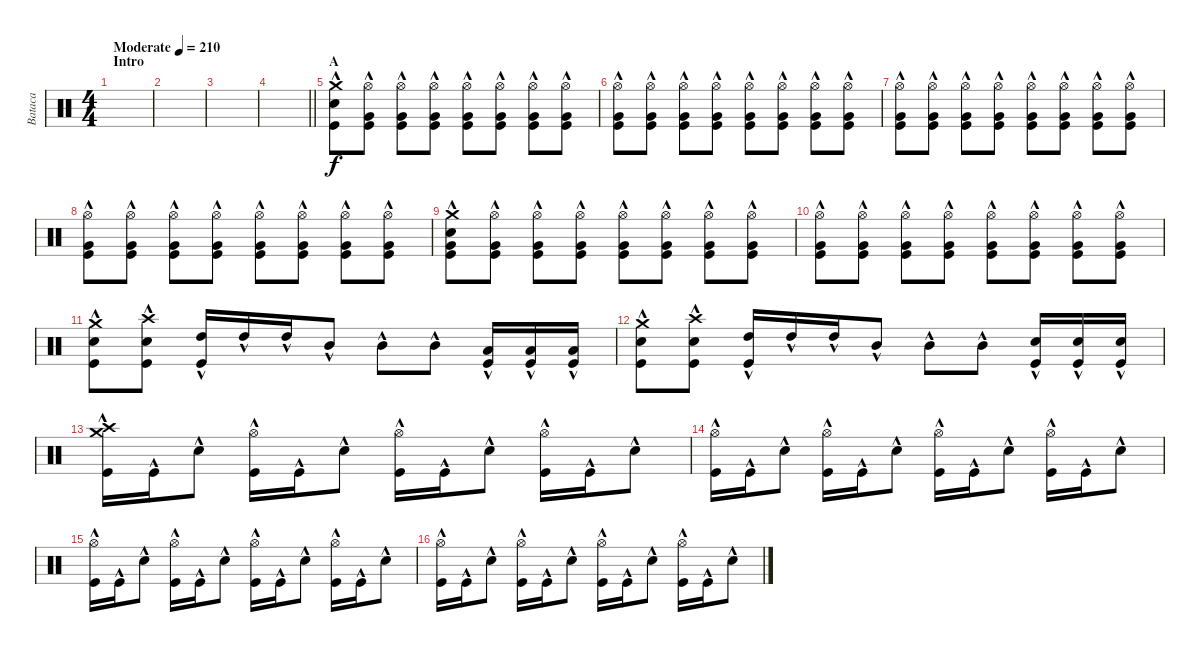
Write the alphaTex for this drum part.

\track ("Bataca" "Bataca") {instrument percussion}
\staff {score}
\articulation defaults
\ts (4 4)
\section ("" "Intro")
\tempo (210 "Moderate")
\clef neutral
\ks c
|
|
|
\barLineRight lightlight
|
\section ("" "A")
("Crash medium (hit)"{hac} "Electric Snare (hit)"{hac} "Kick (hit)"{hac}).8 ("Very Low Tom (hit)"{hac} "Hi-Hat (open)"{hac} "Kick (hit)"{hac}).8 ("Very Low Tom (hit)"{hac} "Hi-Hat (open)"{hac} "Kick (hit)"{hac}).8 ("Very Low Tom (hit)"{hac} "Hi-Hat (open)"{hac} "Kick (hit)"{hac}).8 ("Very Low Tom (hit)"{hac} "Hi-Hat (open)"{hac} "Kick (hit)"{hac}).8 ("Very Low Tom (hit)"{hac} "Hi-Hat (open)"{hac} "Kick (hit)"{hac}).8 ("Very Low Tom (hit)"{hac} "Hi-Hat (open)"{hac} "Kick (hit)"{hac}).8 ("Very Low Tom (hit)"{hac} "Hi-Hat (open)"{hac} "Kick (hit)"{hac}).8 |
("Very Low Tom (hit)"{hac} "Hi-Hat (open)"{hac} "Kick (hit)"{hac}).8 ("Very Low Tom (hit)"{hac} "Hi-Hat (open)"{hac} "Kick (hit)"{hac}).8 ("Very Low Tom (hit)"{hac} "Hi-Hat (open)"{hac} "Kick (hit)"{hac}).8 ("Very Low Tom (hit)"{hac} "Hi-Hat (open)"{hac} "Kick (hit)"{hac}).8 ("Very Low Tom (hit)"{hac} "Hi-Hat (open)"{hac} "Kick (hit)"{hac}).8 ("Very Low Tom (hit)"{hac} "Hi-Hat (open)"{hac} "Kick (hit)"{hac}).8 ("Very Low Tom (hit)"{hac} "Hi-Hat (open)"{hac} "Kick (hit)"{hac}).8 ("Very Low Tom (hit)"{hac} "Hi-Hat (open)"{hac} "Kick (hit)"{hac}).8 |
("Very Low Tom (hit)"{hac} "Hi-Hat (open)"{hac} "Kick (hit)"{hac}).8 ("Very Low Tom (hit)"{hac} "Hi-Hat (open)"{hac} "Kick (hit)"{hac}).8 ("Very Low Tom (hit)"{hac} "Hi-Hat (open)"{hac} "Kick (hit)"{hac}).8 ("Very Low Tom (hit)"{hac} "Hi-Hat (open)"{hac} "Kick (hit)"{hac}).8 ("Very Low Tom (hit)"{hac} "Hi-Hat (open)"{hac} "Kick (hit)"{hac}).8 ("Very Low Tom (hit)"{hac} "Hi-Hat (open)"{hac} "Kick (hit)"{hac}).8 ("Very Low Tom (hit)"{hac} "Hi-Hat (open)"{hac} "Kick (hit)"{hac}).8 ("Very Low Tom (hit)"{hac} "Hi-Hat (open)"{hac} "Kick (hit)"{hac}).8 |
("Very Low Tom (hit)"{hac} "Hi-Hat (open)"{hac} "Kick (hit)"{hac}).8 ("Very Low Tom (hit)"{hac} "Hi-Hat (open)"{hac} "Kick (hit)"{hac}).8 ("Very Low Tom (hit)"{hac} "Hi-Hat (open)"{hac} "Kick (hit)"{hac}).8 ("Very Low Tom (hit)"{hac} "Hi-Hat (open)"{hac} "Kick (hit)"{hac}).8 ("Very Low Tom (hit)"{hac} "Hi-Hat (open)"{hac} "Kick (hit)"{hac}).8 ("Very Low Tom (hit)"{hac} "Hi-Hat (open)"{hac} "Kick (hit)"{hac}).8 ("Very Low Tom (hit)"{hac} "Hi-Hat (open)"{hac} "Kick (hit)"{hac}).8 ("Very Low Tom (hit)"{hac} "Hi-Hat (open)"{hac} "Kick (hit)"{hac}).8 |
("Crash medium (hit)"{hac} "Very Low Tom (hit)"{hac} "Electric Snare (hit)"{hac} "Kick (hit)"{hac}).8 ("Very Low Tom (hit)"{hac} "Hi-Hat (open)"{hac} "Kick (hit)"{hac}).8 ("Very Low Tom (hit)"{hac} "Hi-Hat (open)"{hac} "Kick (hit)"{hac}).8 ("Very Low Tom (hit)"{hac} "Hi-Hat (open)"{hac} "Kick (hit)"{hac}).8 ("Very Low Tom (hit)"{hac} "Hi-Hat (open)"{hac} "Kick (hit)"{hac}).8 ("Very Low Tom (hit)"{hac} "Hi-Hat (open)"{hac} "Kick (hit)"{hac}).8 ("Very Low Tom (hit)"{hac} "Hi-Hat (open)"{hac} "Kick (hit)"{hac}).8 ("Very Low Tom (hit)"{hac} "Hi-Hat (open)"{hac} "Kick (hit)"{hac}).8 |
("Very Low Tom (hit)"{hac} "Hi-Hat (open)"{hac} "Kick (hit)"{hac}).8 ("Very Low Tom (hit)"{hac} "Hi-Hat (open)"{hac} "Kick (hit)"{hac}).8 ("Very Low Tom (hit)"{hac} "Hi-Hat (open)"{hac} "Kick (hit)"{hac}).8 ("Very Low Tom (hit)"{hac} "Hi-Hat (open)"{hac} "Kick (hit)"{hac}).8 ("Very Low Tom (hit)"{hac} "Hi-Hat (open)"{hac} "Kick (hit)"{hac}).8 ("Very Low Tom (hit)"{hac} "Hi-Hat (open)"{hac} "Kick (hit)"{hac}).8 ("Very Low Tom (hit)"{hac} "Hi-Hat (open)"{hac} "Kick (hit)"{hac}).8 ("Very Low Tom (hit)"{hac} "Hi-Hat (open)"{hac} "Kick (hit)"{hac}).8 |
("Crash medium (hit)"{hac} "Electric Snare (hit)"{hac} "Kick (hit)"{hac}).8 ("Crash high (hit)"{hac} "Electric Snare (hit)"{hac} "Kick (hit)"{hac}).8 ("High Tom (hit)"{hac} "Kick (hit)"{hac}).16 "High Tom (hit)"{hac}.16 "High Tom (hit)"{hac}.16 "Mid Tom (hit)"{hac}.8 "Mid Tom (hit)"{hac}.8 "Mid Tom (hit)"{hac}.8 ("Low Tom (hit)"{hac} "Kick (hit)"{hac}).16 ("Low Tom (hit)"{hac} "Kick (hit)"{hac}).16 ("Low Tom (hit)"{hac} "Kick (hit)"{hac}).16 |
("Crash medium (hit)"{hac} "Electric Snare (hit)"{hac} "Kick (hit)"{hac}).8 ("Crash high (hit)"{hac} "Electric Snare (hit)"{hac} "Kick (hit)"{hac}).8 ("High Tom (hit)"{hac} "Kick (hit)"{hac}).16 "High Tom (hit)"{hac}.16 "High Tom (hit)"{hac}.16 "Mid Tom (hit)"{hac}.8 "Mid Tom (hit)"{hac}.8 "Mid Tom (hit)"{hac}.8 ("Electric Snare (hit)"{hac} "Kick (hit)"{hac}).16 ("Electric Snare (hit)"{hac} "Kick (hit)"{hac}).16 ("Electric Snare (hit)"{hac} "Kick (hit)"{hac}).16 |
("Crash medium (hit)"{hac} "Crash high (hit)"{hac} "Kick (hit)"{hac}).16 "Kick (hit)"{hac}.16 "Electric Snare (hit)"{hac}.8 ("Hi-Hat (open)"{hac} "Kick (hit)"{hac}).16 "Kick (hit)"{hac}.16 "Electric Snare (hit)"{hac}.8 ("Hi-Hat (open)"{hac} "Kick (hit)"{hac}).16 "Kick (hit)"{hac}.16 "Electric Snare (hit)"{hac}.8 ("Hi-Hat (open)"{hac} "Kick (hit)"{hac}).16 "Kick (hit)"{hac}.16 "Electric Snare (hit)"{hac}.8 |
("Hi-Hat (open)"{hac} "Kick (hit)"{hac}).16 "Kick (hit)"{hac}.16 "Electric Snare (hit)"{hac}.8 ("Hi-Hat (open)"{hac} "Kick (hit)"{hac}).16 "Kick (hit)"{hac}.16 "Electric Snare (hit)"{hac}.8 ("Hi-Hat (open)"{hac} "Kick (hit)"{hac}).16 "Kick (hit)"{hac}.16 "Electric Snare (hit)"{hac}.8 ("Hi-Hat (open)"{hac} "Kick (hit)"{hac}).16 "Kick (hit)"{hac}.16 "Electric Snare (hit)"{hac}.8 |
("Hi-Hat (open)"{hac} "Kick (hit)"{hac}).16 "Kick (hit)"{hac}.16 "Electric Snare (hit)"{hac}.8 ("Hi-Hat (open)"{hac} "Kick (hit)"{hac}).16 "Kick (hit)"{hac}.16 "Electric Snare (hit)"{hac}.8 ("Hi-Hat (open)"{hac} "Kick (hit)"{hac}).16 "Kick (hit)"{hac}.16 "Electric Snare (hit)"{hac}.8 ("Hi-Hat (open)"{hac} "Kick (hit)"{hac}).16 "Kick (hit)"{hac}.16 "Electric Snare (hit)"{hac}.8 |
("Hi-Hat (open)"{hac} "Kick (hit)"{hac}).16 "Kick (hit)"{hac}.16 "Electric Snare (hit)"{hac}.8 ("Hi-Hat (open)"{hac} "Kick (hit)"{hac}).16 "Kick (hit)"{hac}.16 "Electric Snare (hit)"{hac}.8 ("Hi-Hat (open)"{hac} "Kick (hit)"{hac}).16 "Kick (hit)"{hac}.16 "Electric Snare (hit)"{hac}.8 ("Hi-Hat (open)"{hac} "Kick (hit)"{hac}).16 "Kick (hit)"{hac}.16 "Electric Snare (hit)"{hac}.8
